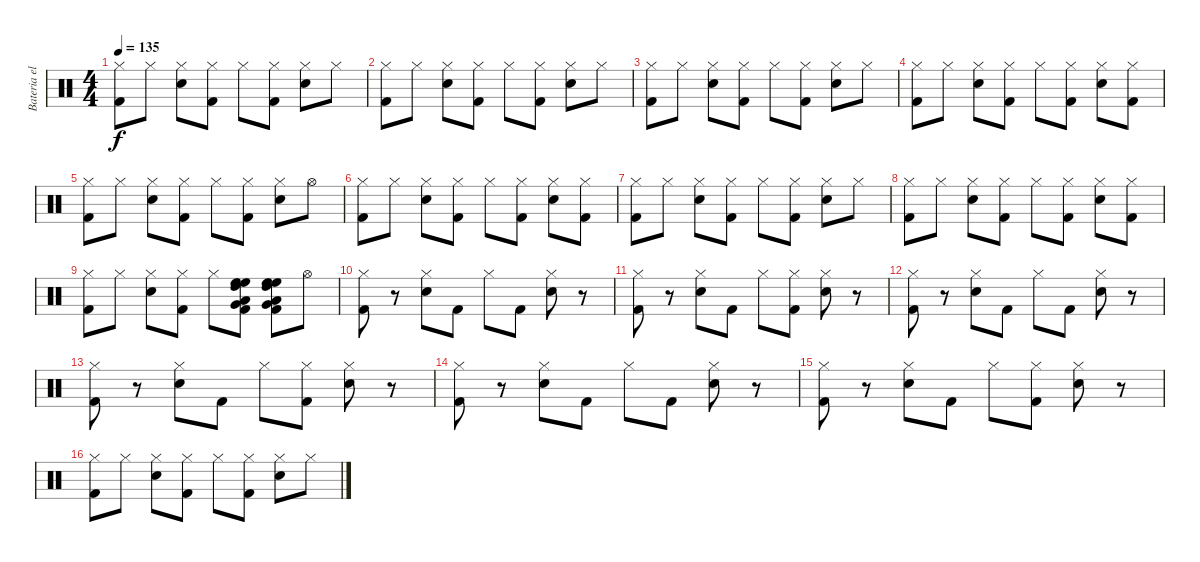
\track ("Bateria electrica" "Bateria el") {instrument percussion}
\staff {score}
\articulation defaults
\ts (4 4)
\tempo 135
\clef neutral
\ks c
("Hi-Hat (closed)" "Kick (hit) 2").8{dy f} "Hi-Hat (closed)".8 ("Hi-Hat (closed)" "Snare (hit) 2").8 ("Hi-Hat (closed)" "Kick (hit) 2").8 "Hi-Hat (closed)".8 ("Hi-Hat (closed)" "Kick (hit) 2").8 ("Hi-Hat (closed)" "Snare (hit) 2").8 "Hi-Hat (closed)".8 |
("Hi-Hat (closed)" "Kick (hit) 2").8 "Hi-Hat (closed)".8 ("Hi-Hat (closed)" "Snare (hit) 2").8 ("Hi-Hat (closed)" "Kick (hit) 2").8 "Hi-Hat (closed)".8 ("Hi-Hat (closed)" "Kick (hit) 2").8 ("Hi-Hat (closed)" "Snare (hit) 2").8 "Hi-Hat (closed)".8 |
("Hi-Hat (closed)" "Kick (hit) 2").8 "Hi-Hat (closed)".8 ("Hi-Hat (closed)" "Snare (hit) 2").8 ("Hi-Hat (closed)" "Kick (hit) 2").8 "Hi-Hat (closed)".8 ("Hi-Hat (closed)" "Kick (hit) 2").8 ("Hi-Hat (closed)" "Snare (hit) 2").8 "Hi-Hat (closed)".8 |
("Hi-Hat (closed)" "Kick (hit) 2").8 "Hi-Hat (closed)".8 ("Hi-Hat (closed)" "Snare (hit) 2").8 ("Hi-Hat (closed)" "Kick (hit) 2").8 "Hi-Hat (closed)".8 ("Hi-Hat (closed)" "Kick (hit) 2").8 ("Hi-Hat (closed)" "Snare (hit) 2").8 ("Hi-Hat (closed)" "Kick (hit) 2").8 |
("Hi-Hat (closed)" "Kick (hit) 2").8 "Hi-Hat (closed)".8 ("Hi-Hat (closed)" "Snare (hit) 2").8 ("Hi-Hat (closed)" "Kick (hit) 2").8 "Hi-Hat (closed)".8 ("Hi-Hat (closed)" "Kick (hit) 2").8 ("Hi-Hat (closed)" "Snare (hit) 2").8 "Hi-Hat (open)".8 |
("Hi-Hat (closed)" "Kick (hit) 2").8 "Hi-Hat (closed)".8 ("Hi-Hat (closed)" "Snare (hit) 2").8 ("Hi-Hat (closed)" "Kick (hit) 2").8 "Hi-Hat (closed)".8 ("Hi-Hat (closed)" "Kick (hit) 2").8 ("Hi-Hat (closed)" "Snare (hit) 2").8 ("Hi-Hat (closed)" "Kick (hit) 2").8 |
("Hi-Hat (closed)" "Kick (hit) 2").8 "Hi-Hat (closed)".8 ("Hi-Hat (closed)" "Snare (hit) 2").8 ("Hi-Hat (closed)" "Kick (hit) 2").8 "Hi-Hat (closed)".8 ("Hi-Hat (closed)" "Kick (hit) 2").8 ("Hi-Hat (closed)" "Snare (hit) 2").8 "Hi-Hat (closed)".8 |
("Hi-Hat (closed)" "Kick (hit) 2").8 "Hi-Hat (closed)".8 ("Hi-Hat (closed)" "Snare (hit) 2").8 ("Hi-Hat (closed)" "Kick (hit) 2").8 "Hi-Hat (closed)".8 ("Hi-Hat (closed)" "Kick (hit) 2").8 ("Hi-Hat (closed)" "Snare (hit) 2").8 ("Hi-Hat (closed)" "Kick (hit) 2").8 |
("Hi-Hat (closed)" "Kick (hit) 2").8 "Hi-Hat (closed)".8 ("Hi-Hat (closed)" "Snare (hit) 2").8 ("Hi-Hat (closed)" "Kick (hit) 2").8 "Hi-Hat (closed)".8 ("High Floor Tom (hit)" "High Tom (hit)" "High Floor Tom (hit)" "Very Low Tom (hit)" "Low Floor Tom (hit)" "Kick (hit) 2").8 ("High Floor Tom (hit)" "High Tom (hit)" "High Floor Tom (hit)" "Very Low Tom (hit)" "Low Floor Tom (hit)" "Kick (hit) 2").8 "Hi-Hat (open)".8 |
("Hi-Hat (closed)" "Kick (hit) 2").8 r.8 ("Hi-Hat (closed)" "Snare (hit) 2").8 "Kick (hit) 2".8 "Hi-Hat (closed)".8 "Kick (hit) 2".8 ("Hi-Hat (closed)" "Snare (hit) 2").8 r.8 |
("Hi-Hat (closed)" "Kick (hit) 2").8 r.8 ("Hi-Hat (closed)" "Snare (hit) 2").8 "Kick (hit) 2".8 "Hi-Hat (closed)".8 ("Hi-Hat (closed)" "Kick (hit) 2").8 ("Hi-Hat (closed)" "Snare (hit) 2").8 r.8 |
("Hi-Hat (closed)" "Kick (hit) 2").8 r.8 ("Hi-Hat (closed)" "Snare (hit) 2").8 "Kick (hit) 2".8 "Hi-Hat (closed)".8 "Kick (hit) 2".8 ("Hi-Hat (closed)" "Snare (hit) 2").8 r.8 |
("Hi-Hat (closed)" "Kick (hit) 2").8 r.8 ("Hi-Hat (closed)" "Snare (hit) 2").8 "Kick (hit) 2".8 "Hi-Hat (closed)".8 ("Hi-Hat (closed)" "Kick (hit) 2").8 ("Hi-Hat (closed)" "Snare (hit) 2").8 r.8 |
("Hi-Hat (closed)" "Kick (hit) 2").8 r.8 ("Hi-Hat (closed)" "Snare (hit) 2").8 "Kick (hit) 2".8 "Hi-Hat (closed)".8 "Kick (hit) 2".8 ("Hi-Hat (closed)" "Snare (hit) 2").8 r.8 |
("Hi-Hat (closed)" "Kick (hit) 2").8 r.8 ("Hi-Hat (closed)" "Snare (hit) 2").8 "Kick (hit) 2".8 "Hi-Hat (closed)".8 ("Hi-Hat (closed)" "Kick (hit) 2").8 ("Hi-Hat (closed)" "Snare (hit) 2").8 r.8 |
("Hi-Hat (closed)" "Kick (hit) 2").8 "Hi-Hat (closed)".8 ("Hi-Hat (closed)" "Snare (hit) 2").8 ("Hi-Hat (closed)" "Kick (hit) 2").8 "Hi-Hat (closed)".8 ("Hi-Hat (closed)" "Kick (hit) 2").8 ("Hi-Hat (closed)" "Snare (hit) 2").8 "Hi-Hat (closed)".8
